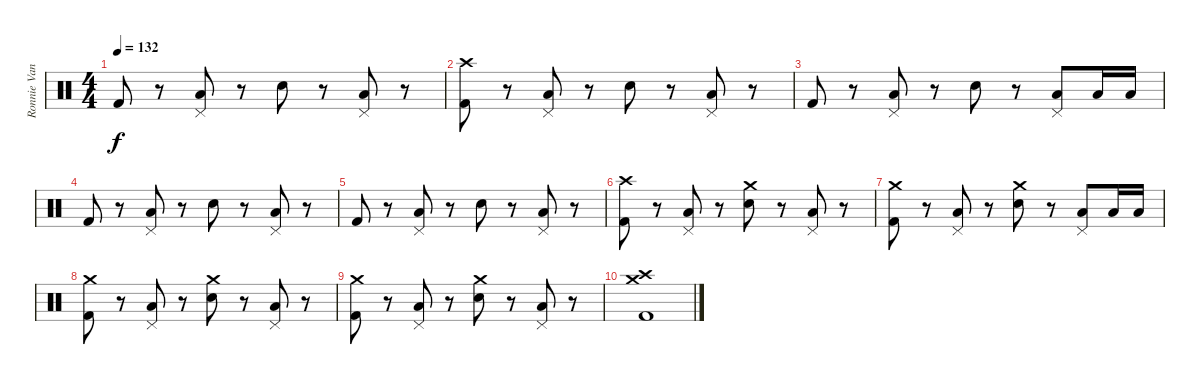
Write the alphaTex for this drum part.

\track ("Ronnie Vannucci Jr.'s drums" "Ronnie Van") {instrument percussion}
\staff {score}
\articulation defaults
\ts (4 4)
\tempo 132
\clef neutral
\ks c "Kick (hit) 2".8{dy f}
r.8 ("Pedal Hi-Hat (hit)" "Low Floor Tom (hit)").8 r.8 "Electric Snare (hit)".8 r.8 ("Pedal Hi-Hat (hit)" "Low Floor Tom (hit)").8 r.8 |
("Crash high (hit)" "Kick (hit) 2").8 r.8 ("Pedal Hi-Hat (hit)" "Low Floor Tom (hit)").8 r.8 "Electric Snare (hit)".8 r.8 ("Pedal Hi-Hat (hit)" "Low Floor Tom (hit)").8 r.8 |
"Kick (hit) 2".8 r.8 ("Pedal Hi-Hat (hit)" "Low Floor Tom (hit)").8 r.8 "Electric Snare (hit)".8 r.8 ("Pedal Hi-Hat (hit)" "Low Floor Tom (hit)").8 "Low Floor Tom (hit)".16 "Low Floor Tom (hit)".16 |
"Kick (hit) 2".8 r.8 ("Pedal Hi-Hat (hit)" "Low Floor Tom (hit)").8 r.8 "Electric Snare (hit)".8 r.8 ("Pedal Hi-Hat (hit)" "Low Floor Tom (hit)").8 r.8 |
"Kick (hit) 2".8 r.8 ("Pedal Hi-Hat (hit)" "Low Floor Tom (hit)").8 r.8 "Electric Snare (hit)".8 r.8 ("Pedal Hi-Hat (hit)" "Low Floor Tom (hit)").8 r.8 |
("Crash high (hit)" "Kick (hit) 2").8 r.8 ("Pedal Hi-Hat (hit)" "Low Floor Tom (hit)").8 r.8 ("Crash medium (hit)" "Electric Snare (hit)").8 r.8 ("Pedal Hi-Hat (hit)" "Low Floor Tom (hit)").8 r.8 |
("Crash medium (hit)" "Kick (hit) 2").8 r.8 ("Pedal Hi-Hat (hit)" "Low Floor Tom (hit)").8 r.8 ("Crash medium (hit)" "Electric Snare (hit)").8 r.8 ("Pedal Hi-Hat (hit)" "Low Floor Tom (hit)").8 "Low Floor Tom (hit)".16 "Low Floor Tom (hit)".16 |
("Crash medium (hit)" "Kick (hit) 2").8 r.8 ("Pedal Hi-Hat (hit)" "Low Floor Tom (hit)").8 r.8 ("Crash medium (hit)" "Electric Snare (hit)").8 r.8 ("Pedal Hi-Hat (hit)" "Low Floor Tom (hit)").8 r.8 |
("Crash medium (hit)" "Kick (hit) 2").8 r.8 ("Pedal Hi-Hat (hit)" "Low Floor Tom (hit)").8 r.8 ("Crash medium (hit)" "Electric Snare (hit)").8 r.8 ("Pedal Hi-Hat (hit)" "Low Floor Tom (hit)").8 r.8 |
("Crash high (hit)" "Kick (hit) 2" "Crash medium (hit)").1
